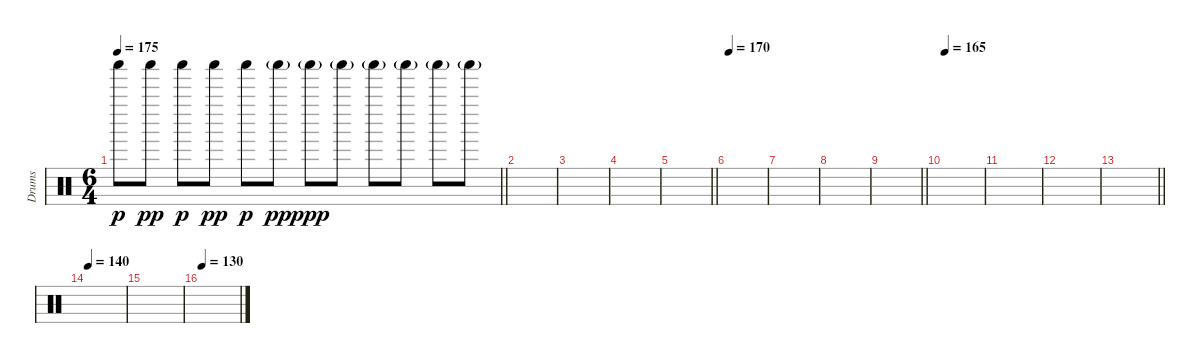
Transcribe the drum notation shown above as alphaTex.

\track ("Drums" "Drums") {instrument percussion}
\staff {score}
\articulation defaults
\ts (6 4)
\tempo 175
\clef neutral
\barLineRight lightlight
\ks c "Shaker (hit)".8{dy p} "Shaker (hit)".8{dy pp} "Shaker (hit)".8{dy p} "Shaker (hit)".8{dy pp} "Shaker (hit)".8{dy p} "Shaker (hit)"{g}.8{dy pp} "Shaker (hit)"{g}.8{dy ppp} "Shaker (hit)"{g}.8 "Shaker (hit)"{g}.8 "Shaker (hit)"{g}.8 "Shaker (hit)"{g}.8 "Shaker (hit)"{g}.8
|
\section ("" "")
|
|
|
\barLineRight lightlight
|
\tempo 170
|
|
|
\barLineRight lightlight
|
\tempo 165
|
|
|
\barLineRight lightlight
|
\section ("" "")
\tempo 140
|
|
\tempo 130
